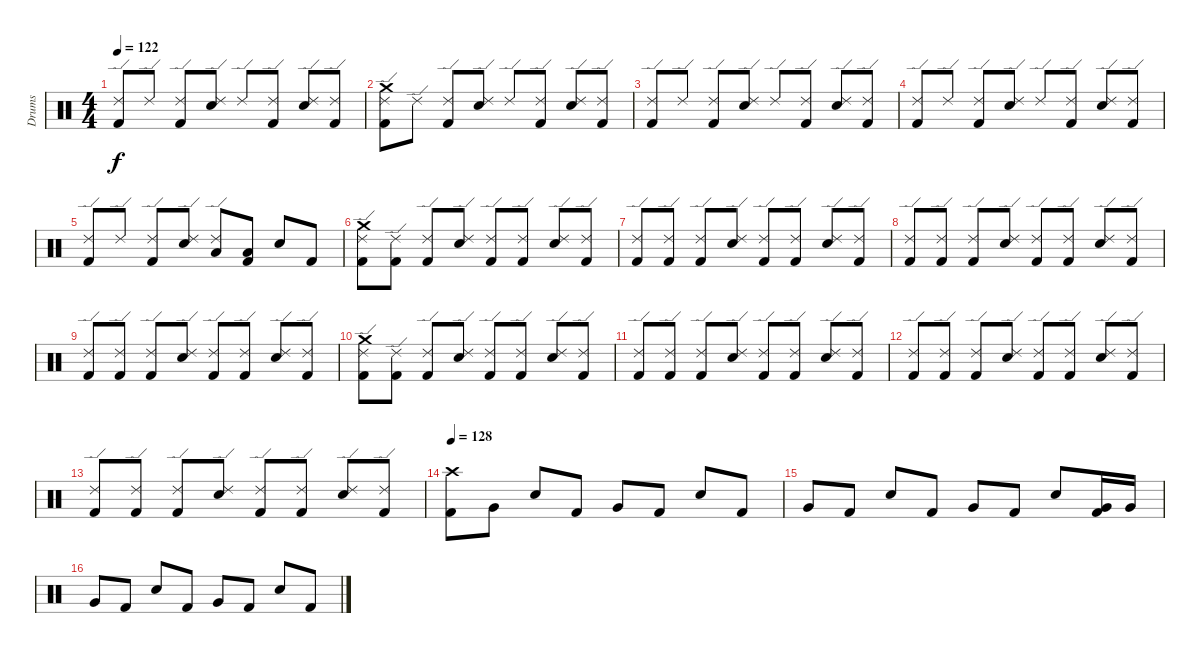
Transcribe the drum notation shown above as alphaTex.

\track ("Drums" "Drums") {instrument percussion}
\staff {score}
\articulation defaults
\ts (4 4)
\tempo 122
\clef neutral
\ks c
("Ride (edge) 2" "Kick (hit) 2").8{dy f} "Ride (edge) 2".8 ("Ride (edge) 2" "Kick (hit) 2").8 ("Ride (edge) 2" "Electric Snare (hit)").8 "Ride (edge) 2".8 ("Ride (edge) 2" "Kick (hit) 2").8 ("Ride (edge) 2" "Electric Snare (hit)").8 ("Ride (edge) 2" "Kick (hit) 2").8 |
("Ride (edge) 2" "Crash medium (hit)" "Kick (hit) 2").8 "Ride (edge) 2".8 ("Ride (edge) 2" "Kick (hit) 2").8 ("Ride (edge) 2" "Electric Snare (hit)").8 "Ride (edge) 2".8 ("Ride (edge) 2" "Kick (hit) 2").8 ("Ride (edge) 2" "Electric Snare (hit)").8 ("Ride (edge) 2" "Kick (hit) 2").8 |
("Ride (edge) 2" "Kick (hit) 2").8 "Ride (edge) 2".8 ("Ride (edge) 2" "Kick (hit) 2").8 ("Ride (edge) 2" "Electric Snare (hit)").8 "Ride (edge) 2".8 ("Ride (edge) 2" "Kick (hit) 2").8 ("Ride (edge) 2" "Electric Snare (hit)").8 ("Ride (edge) 2" "Kick (hit) 2").8 |
("Ride (edge) 2" "Kick (hit) 2").8 "Ride (edge) 2".8 ("Ride (edge) 2" "Kick (hit) 2").8 ("Ride (edge) 2" "Electric Snare (hit)").8 "Ride (edge) 2".8 ("Ride (edge) 2" "Kick (hit) 2").8 ("Ride (edge) 2" "Electric Snare (hit)").8 ("Ride (edge) 2" "Kick (hit) 2").8 |
("Ride (edge) 2" "Kick (hit) 2").8 "Ride (edge) 2".8 ("Ride (edge) 2" "Kick (hit) 2").8 ("Ride (edge) 2" "Electric Snare (hit)").8 ("Ride (edge) 2" "Low Tom (hit)").8 ("Low Tom (hit)" "Kick (hit) 2").8 "Electric Snare (hit)".8 "Kick (hit) 2".8 |
("Ride (edge) 2" "Crash medium (hit)" "Kick (hit) 2").8 ("Ride (edge) 2" "Kick (hit) 2").8 ("Ride (edge) 2" "Kick (hit) 2").8 ("Ride (edge) 2" "Electric Snare (hit)").8 ("Ride (edge) 2" "Kick (hit) 2").8 ("Ride (edge) 2" "Kick (hit) 2").8 ("Ride (edge) 2" "Electric Snare (hit)").8 ("Ride (edge) 2" "Kick (hit) 2").8 |
("Ride (edge) 2" "Kick (hit) 2").8 ("Ride (edge) 2" "Kick (hit) 2").8 ("Ride (edge) 2" "Kick (hit) 2").8 ("Ride (edge) 2" "Electric Snare (hit)").8 ("Ride (edge) 2" "Kick (hit) 2").8 ("Ride (edge) 2" "Kick (hit) 2").8 ("Ride (edge) 2" "Electric Snare (hit)").8 ("Ride (edge) 2" "Kick (hit) 2").8 |
("Ride (edge) 2" "Kick (hit) 2").8 ("Ride (edge) 2" "Kick (hit) 2").8 ("Ride (edge) 2" "Kick (hit) 2").8 ("Ride (edge) 2" "Electric Snare (hit)").8 ("Ride (edge) 2" "Kick (hit) 2").8 ("Ride (edge) 2" "Kick (hit) 2").8 ("Ride (edge) 2" "Electric Snare (hit)").8 ("Ride (edge) 2" "Kick (hit) 2").8 |
("Ride (edge) 2" "Kick (hit) 2").8 ("Ride (edge) 2" "Kick (hit) 2").8 ("Ride (edge) 2" "Kick (hit) 2").8 ("Ride (edge) 2" "Electric Snare (hit)").8 ("Ride (edge) 2" "Kick (hit) 2").8 ("Ride (edge) 2" "Kick (hit) 2").8 ("Ride (edge) 2" "Electric Snare (hit)").8 ("Ride (edge) 2" "Kick (hit) 2").8 |
("Ride (edge) 2" "Crash medium (hit)" "Kick (hit) 2").8 ("Ride (edge) 2" "Kick (hit) 2").8 ("Ride (edge) 2" "Kick (hit) 2").8 ("Ride (edge) 2" "Electric Snare (hit)").8 ("Ride (edge) 2" "Kick (hit) 2").8 ("Ride (edge) 2" "Kick (hit) 2").8 ("Ride (edge) 2" "Electric Snare (hit)").8 ("Ride (edge) 2" "Kick (hit) 2").8 |
("Ride (edge) 2" "Kick (hit) 2").8 ("Ride (edge) 2" "Kick (hit) 2").8 ("Ride (edge) 2" "Kick (hit) 2").8 ("Ride (edge) 2" "Electric Snare (hit)").8 ("Ride (edge) 2" "Kick (hit) 2").8 ("Ride (edge) 2" "Kick (hit) 2").8 ("Ride (edge) 2" "Electric Snare (hit)").8 ("Ride (edge) 2" "Kick (hit) 2").8 |
("Ride (edge) 2" "Kick (hit) 2").8 ("Ride (edge) 2" "Kick (hit) 2").8 ("Ride (edge) 2" "Kick (hit) 2").8 ("Ride (edge) 2" "Electric Snare (hit)").8 ("Ride (edge) 2" "Kick (hit) 2").8 ("Ride (edge) 2" "Kick (hit) 2").8 ("Ride (edge) 2" "Electric Snare (hit)").8 ("Ride (edge) 2" "Kick (hit) 2").8 |
("Ride (edge) 2" "Kick (hit) 2").8 ("Ride (edge) 2" "Kick (hit) 2").8 ("Ride (edge) 2" "Kick (hit) 2").8 ("Ride (edge) 2" "Electric Snare (hit)").8 ("Ride (edge) 2" "Kick (hit) 2").8 ("Ride (edge) 2" "Kick (hit) 2").8 ("Ride (edge) 2" "Electric Snare (hit)").8 ("Ride (edge) 2" "Kick (hit) 2").8 |
\tempo 128
("Crash high (hit)" "Kick (hit) 2").8 "Very Low Tom (hit)".8 "Electric Snare (hit)".8 "Kick (hit) 2".8 "Very Low Tom (hit)".8 "Kick (hit) 2".8 "Electric Snare (hit)".8 "Kick (hit) 2".8 |
"Very Low Tom (hit)".8 "Kick (hit) 2".8 "Electric Snare (hit)".8 "Kick (hit) 2".8 "Very Low Tom (hit)".8 "Kick (hit) 2".8 "Electric Snare (hit)".8 ("Very Low Tom (hit)" "Kick (hit) 2").16 "Very Low Tom (hit)".16 |
"Very Low Tom (hit)".8 "Kick (hit) 2".8 "Electric Snare (hit)".8 "Kick (hit) 2".8 "Very Low Tom (hit)".8 "Kick (hit) 2".8 "Electric Snare (hit)".8 "Kick (hit) 2".8
